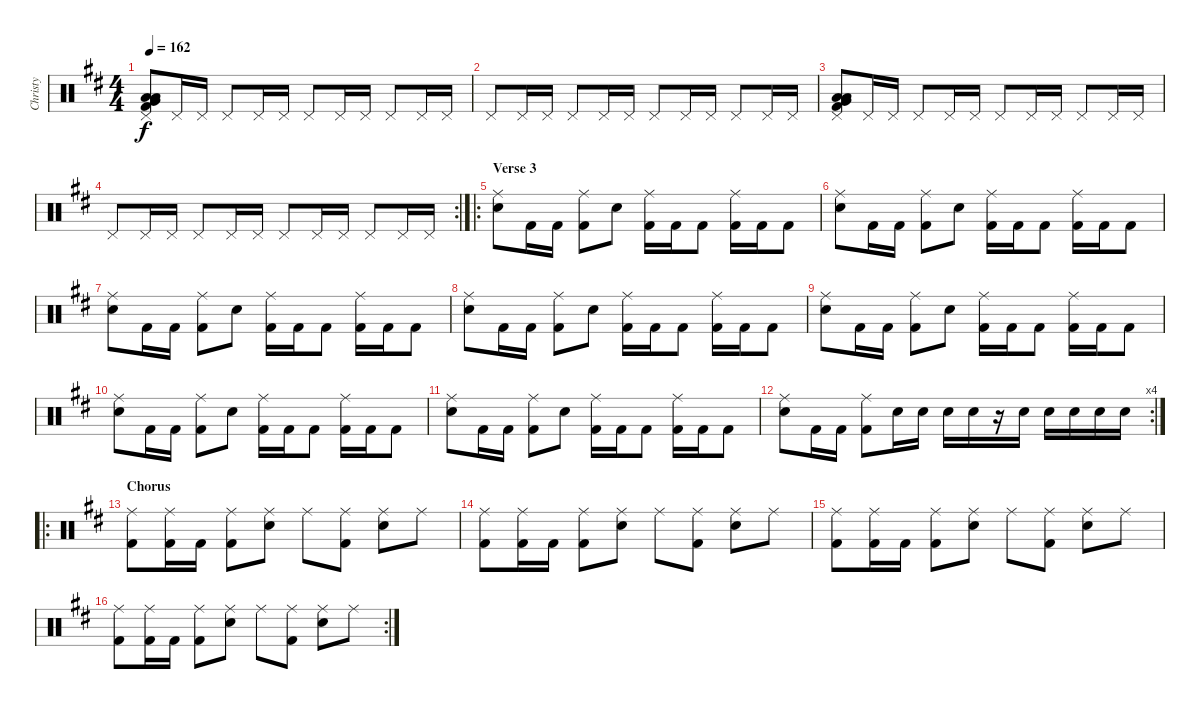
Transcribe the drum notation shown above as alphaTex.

\track ("Christy" "Christy") {instrument percussion}
\staff {score}
\articulation defaults
\ts (4 4)
\tempo 162
\clef neutral
\ks d
("Pedal Hi-Hat (hit)" "Low Floor Tom (hit)" "Very Low Tom (hit)" "Low Tom (hit)" "Kick (hit) 2").8{dy f} "Pedal Hi-Hat (hit)".16 "Pedal Hi-Hat (hit)".16 "Pedal Hi-Hat (hit)".8 "Pedal Hi-Hat (hit)".16 "Pedal Hi-Hat (hit)".16 "Pedal Hi-Hat (hit)".8 "Pedal Hi-Hat (hit)".16 "Pedal Hi-Hat (hit)".16 "Pedal Hi-Hat (hit)".8 "Pedal Hi-Hat (hit)".16 "Pedal Hi-Hat (hit)".16 |
"Pedal Hi-Hat (hit)".8 "Pedal Hi-Hat (hit)".16 "Pedal Hi-Hat (hit)".16 "Pedal Hi-Hat (hit)".8 "Pedal Hi-Hat (hit)".16 "Pedal Hi-Hat (hit)".16 "Pedal Hi-Hat (hit)".8 "Pedal Hi-Hat (hit)".16 "Pedal Hi-Hat (hit)".16 "Pedal Hi-Hat (hit)".8 "Pedal Hi-Hat (hit)".16 "Pedal Hi-Hat (hit)".16 |
("Pedal Hi-Hat (hit)" "Low Floor Tom (hit)" "Very Low Tom (hit)" "Low Tom (hit)" "Kick (hit) 2").8 "Pedal Hi-Hat (hit)".16 "Pedal Hi-Hat (hit)".16 "Pedal Hi-Hat (hit)".8 "Pedal Hi-Hat (hit)".16 "Pedal Hi-Hat (hit)".16 "Pedal Hi-Hat (hit)".8 "Pedal Hi-Hat (hit)".16 "Pedal Hi-Hat (hit)".16 "Pedal Hi-Hat (hit)".8 "Pedal Hi-Hat (hit)".16 "Pedal Hi-Hat (hit)".16 |
\rc 2 "Pedal Hi-Hat (hit)".8 "Pedal Hi-Hat (hit)".16 "Pedal Hi-Hat (hit)".16 "Pedal Hi-Hat (hit)".8 "Pedal Hi-Hat (hit)".16 "Pedal Hi-Hat (hit)".16 "Pedal Hi-Hat (hit)".8 "Pedal Hi-Hat (hit)".16 "Pedal Hi-Hat (hit)".16 "Pedal Hi-Hat (hit)".8 "Pedal Hi-Hat (hit)".16 "Pedal Hi-Hat (hit)".16
|
\ro
\section ("" "Verse 3")
("Ride (middle)" "Snare (hit) 2").8 "Kick (hit) 2".16 "Kick (hit) 2".16 ("Ride (middle)" "Kick (hit) 2").8 "Snare (hit) 2".8 ("Ride (middle)" "Kick (hit) 2").16 "Kick (hit) 2".16 "Kick (hit) 2".8 ("Ride (middle)" "Kick (hit) 2").16 "Kick (hit) 2".16 "Kick (hit) 2".8 |
("Ride (middle)" "Snare (hit) 2").8 "Kick (hit) 2".16 "Kick (hit) 2".16 ("Ride (middle)" "Kick (hit) 2").8 "Snare (hit) 2".8 ("Ride (middle)" "Kick (hit) 2").16 "Kick (hit) 2".16 "Kick (hit) 2".8 ("Ride (middle)" "Kick (hit) 2").16 "Kick (hit) 2".16 "Kick (hit) 2".8 |
("Ride (middle)" "Snare (hit) 2").8 "Kick (hit) 2".16 "Kick (hit) 2".16 ("Ride (middle)" "Kick (hit) 2").8 "Snare (hit) 2".8 ("Ride (middle)" "Kick (hit) 2").16 "Kick (hit) 2".16 "Kick (hit) 2".8 ("Ride (middle)" "Kick (hit) 2").16 "Kick (hit) 2".16 "Kick (hit) 2".8 |
("Ride (middle)" "Snare (hit) 2").8 "Kick (hit) 2".16 "Kick (hit) 2".16 ("Ride (middle)" "Kick (hit) 2").8 "Snare (hit) 2".8 ("Ride (middle)" "Kick (hit) 2").16 "Kick (hit) 2".16 "Kick (hit) 2".8 ("Ride (middle)" "Kick (hit) 2").16 "Kick (hit) 2".16 "Kick (hit) 2".8 |
("Ride (middle)" "Snare (hit) 2").8 "Kick (hit) 2".16 "Kick (hit) 2".16 ("Ride (middle)" "Kick (hit) 2").8 "Snare (hit) 2".8 ("Ride (middle)" "Kick (hit) 2").16 "Kick (hit) 2".16 "Kick (hit) 2".8 ("Ride (middle)" "Kick (hit) 2").16 "Kick (hit) 2".16 "Kick (hit) 2".8 |
("Ride (middle)" "Snare (hit) 2").8 "Kick (hit) 2".16 "Kick (hit) 2".16 ("Ride (middle)" "Kick (hit) 2").8 "Snare (hit) 2".8 ("Ride (middle)" "Kick (hit) 2").16 "Kick (hit) 2".16 "Kick (hit) 2".8 ("Ride (middle)" "Kick (hit) 2").16 "Kick (hit) 2".16 "Kick (hit) 2".8 |
("Ride (middle)" "Snare (hit) 2").8 "Kick (hit) 2".16 "Kick (hit) 2".16 ("Ride (middle)" "Kick (hit) 2").8 "Snare (hit) 2".8 ("Ride (middle)" "Kick (hit) 2").16 "Kick (hit) 2".16 "Kick (hit) 2".8 ("Ride (middle)" "Kick (hit) 2").16 "Kick (hit) 2".16 "Kick (hit) 2".8 |
\rc 4
("Ride (middle)" "Snare (hit) 2").8 "Kick (hit) 2".16 "Kick (hit) 2".16 ("Ride (middle)" "Kick (hit) 2").8 "Snare (hit) 2".16 "Snare (hit) 2".16 "Snare (hit) 2".16 "Snare (hit) 2".16 r.16 "Snare (hit) 2".16 "Snare (hit) 2".16 "Snare (hit) 2".16 "Snare (hit) 2".16 "Snare (hit) 2".16 |
\ro
\section ("" "Chorus")
("Ride (middle)" "Kick (hit) 2").8 ("Ride (middle)" "Kick (hit) 2").16 "Kick (hit) 2".16 ("Ride (middle)" "Kick (hit) 2").8 ("Ride (middle)" "Snare (hit) 2").8 "Ride (middle)".8 ("Ride (middle)" "Kick (hit) 2").8 ("Ride (middle)" "Snare (hit) 2").8 "Ride (middle)".8 |
("Ride (middle)" "Kick (hit) 2").8 ("Ride (middle)" "Kick (hit) 2").16 "Kick (hit) 2".16 ("Ride (middle)" "Kick (hit) 2").8 ("Ride (middle)" "Snare (hit) 2").8 "Ride (middle)".8 ("Ride (middle)" "Kick (hit) 2").8 ("Ride (middle)" "Snare (hit) 2").8 "Ride (middle)".8 |
("Ride (middle)" "Kick (hit) 2").8 ("Ride (middle)" "Kick (hit) 2").16 "Kick (hit) 2".16 ("Ride (middle)" "Kick (hit) 2").8 ("Ride (middle)" "Snare (hit) 2").8 "Ride (middle)".8 ("Ride (middle)" "Kick (hit) 2").8 ("Ride (middle)" "Snare (hit) 2").8 "Ride (middle)".8 |
\rc 2
("Ride (middle)" "Kick (hit) 2").8 ("Ride (middle)" "Kick (hit) 2").16 "Kick (hit) 2".16 ("Ride (middle)" "Kick (hit) 2").8 ("Ride (middle)" "Snare (hit) 2").8 "Ride (middle)".8 ("Ride (middle)" "Kick (hit) 2").8 ("Ride (middle)" "Snare (hit) 2").8 "Ride (middle)".8
